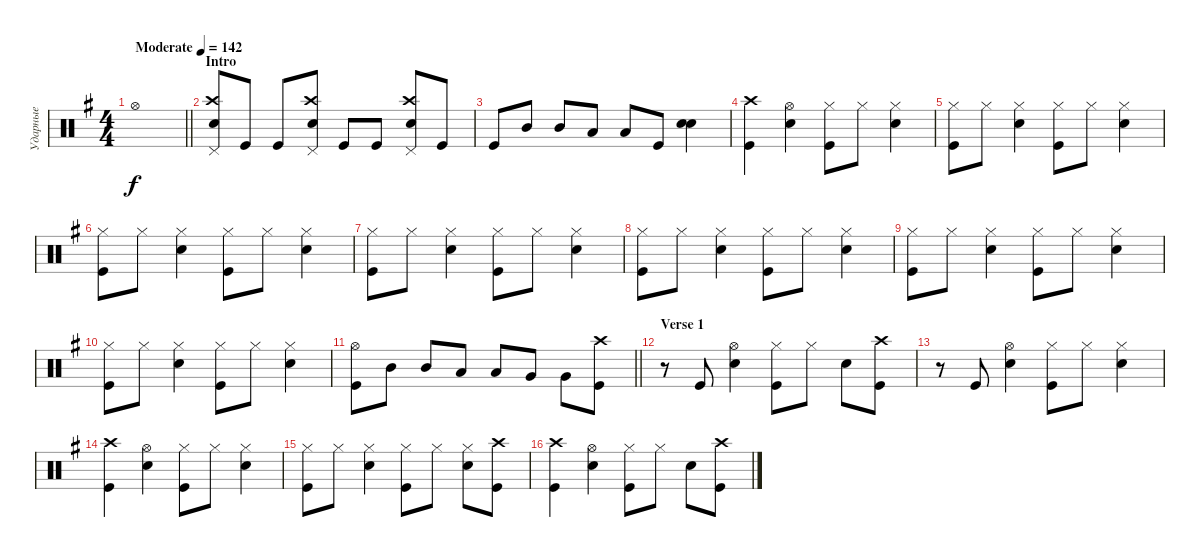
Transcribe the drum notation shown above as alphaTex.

\track ("Ударные" "Ударные") {instrument percussion}
\staff {score}
\articulation defaults
\ts (4 4)
\tempo (142 "Moderate")
\clef neutral
\barLineRight lightlight
\ks eminor "Hi-Hat (open)".1{dy f}
|
\section ("" "Intro")
("Snare (hit) 2" "Crash high (hit)" "Pedal Hi-Hat (hit)").8 "Kick (hit)".8 "Kick (hit)".8 ("Snare (hit) 2" "Crash high (hit)" "Pedal Hi-Hat (hit)").8 "Kick (hit)".8 "Kick (hit)".8 ("Snare (hit) 2" "Crash high (hit)" "Pedal Hi-Hat (hit)").8 "Kick (hit)".8 |
"Kick (hit)".8 "Mid Tom (hit)".8 "Mid Tom (hit)".8 "Low Tom (hit)".8 "Low Tom (hit)".8 "Kick (hit)".8 ("Snare (hit) 2" "Snare (hit) 2").4{bd 240} |
("Kick (hit)" "Crash high (hit)").4 ("Snare (hit) 2" "Hi-Hat (open)").4 ("Kick (hit)" "Hi-Hat (closed)").8 "Hi-Hat (closed)".8 ("Snare (hit) 2" "Hi-Hat (closed)").4 |
("Hi-Hat (closed)" "Kick (hit)").8 "Hi-Hat (closed)".8 ("Snare (hit) 2" "Hi-Hat (closed)").4 ("Kick (hit)" "Hi-Hat (closed)").8 "Hi-Hat (closed)".8 ("Hi-Hat (closed)" "Snare (hit) 2").4 |
("Hi-Hat (closed)" "Kick (hit)").8 "Hi-Hat (closed)".8 ("Snare (hit) 2" "Hi-Hat (closed)").4 ("Kick (hit)" "Hi-Hat (closed)").8 "Hi-Hat (closed)".8 ("Hi-Hat (closed)" "Snare (hit) 2").4 |
("Hi-Hat (closed)" "Kick (hit)").8 "Hi-Hat (closed)".8 ("Snare (hit) 2" "Hi-Hat (closed)").4 ("Kick (hit)" "Hi-Hat (closed)").8 "Hi-Hat (closed)".8 ("Hi-Hat (closed)" "Snare (hit) 2").4 |
("Hi-Hat (closed)" "Kick (hit)").8 "Hi-Hat (closed)".8 ("Snare (hit) 2" "Hi-Hat (closed)").4 ("Kick (hit)" "Hi-Hat (closed)").8 "Hi-Hat (closed)".8 ("Hi-Hat (closed)" "Snare (hit) 2").4 |
("Hi-Hat (closed)" "Kick (hit)").8 "Hi-Hat (closed)".8 ("Snare (hit) 2" "Hi-Hat (closed)").4 ("Kick (hit)" "Hi-Hat (closed)").8 "Hi-Hat (closed)".8 ("Hi-Hat (closed)" "Snare (hit) 2").4 |
("Hi-Hat (closed)" "Kick (hit)").8 "Hi-Hat (closed)".8 ("Snare (hit) 2" "Hi-Hat (closed)").4 ("Kick (hit)" "Hi-Hat (closed)").8 "Hi-Hat (closed)".8 ("Hi-Hat (closed)" "Snare (hit) 2").4 |
\barLineRight lightlight
("Hi-Hat (open)" "Kick (hit)").8 "Mid Tom (hit)".8 "Mid Tom (hit)".8 "Low Tom (hit)".8 "Low Tom (hit)".8 "Very Low Tom (hit)".8 "Very Low Tom (hit)".8 ("Kick (hit)" "Crash high (hit)").8 |
\section ("" "Verse 1")
r.8 "Kick (hit)".8 ("Snare (hit) 2" "Hi-Hat (open)").4 ("Kick (hit)" "Hi-Hat (closed)").8 "Hi-Hat (closed)".8 "Snare (hit) 2".8 ("Kick (hit)" "Crash high (hit)").8 |
r.8 "Kick (hit)".8 ("Snare (hit) 2" "Hi-Hat (open)").4 ("Kick (hit)" "Hi-Hat (closed)").8 "Hi-Hat (closed)".8 ("Snare (hit) 2" "Hi-Hat (closed)").4 |
("Kick (hit)" "Crash high (hit)").4 ("Snare (hit) 2" "Hi-Hat (open)").4 ("Kick (hit)" "Hi-Hat (closed)").8 "Hi-Hat (closed)".8 ("Snare (hit) 2" "Hi-Hat (closed)").4 |
("Hi-Hat (closed)" "Kick (hit)").8 "Hi-Hat (closed)".8 ("Snare (hit) 2" "Hi-Hat (closed)").4 ("Kick (hit)" "Hi-Hat (closed)").8 "Hi-Hat (closed)".8 ("Hi-Hat (closed)" "Snare (hit) 2").8 ("Kick (hit)" "Crash high (hit)").8 |
("Kick (hit)" "Crash high (hit)").4 ("Snare (hit) 2" "Hi-Hat (open)").4 ("Kick (hit)" "Hi-Hat (closed)").8 "Hi-Hat (closed)".8 "Snare (hit) 2".8 ("Kick (hit)" "Crash high (hit)").8
